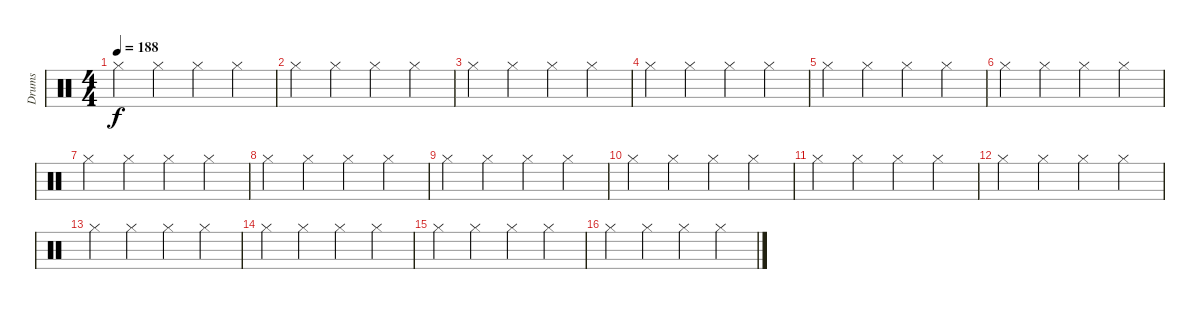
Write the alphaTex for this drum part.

\track ("Drums" "Drums") {instrument percussion}
\staff {score}
\articulation defaults
\ts (4 4)
\tempo 188
\clef neutral
\ks c "Hi-Hat (closed)".4{dy f} "Hi-Hat (closed)".4 "Hi-Hat (closed)".4 "Hi-Hat (closed)".4
|
"Hi-Hat (closed)".4 "Hi-Hat (closed)".4 "Hi-Hat (closed)".4 "Hi-Hat (closed)".4 |
"Hi-Hat (closed)".4 "Hi-Hat (closed)".4 "Hi-Hat (closed)".4 "Hi-Hat (closed)".4 |
"Hi-Hat (closed)".4 "Hi-Hat (closed)".4 "Hi-Hat (closed)".4 "Hi-Hat (closed)".4 |
"Hi-Hat (closed)".4 "Hi-Hat (closed)".4 "Hi-Hat (closed)".4 "Hi-Hat (closed)".4 |
"Hi-Hat (closed)".4 "Hi-Hat (closed)".4 "Hi-Hat (closed)".4 "Hi-Hat (closed)".4 |
"Hi-Hat (closed)".4 "Hi-Hat (closed)".4 "Hi-Hat (closed)".4 "Hi-Hat (closed)".4 |
"Hi-Hat (closed)".4 "Hi-Hat (closed)".4 "Hi-Hat (closed)".4 "Hi-Hat (closed)".4 |
"Hi-Hat (closed)".4 "Hi-Hat (closed)".4 "Hi-Hat (closed)".4 "Hi-Hat (closed)".4 |
"Hi-Hat (closed)".4 "Hi-Hat (closed)".4 "Hi-Hat (closed)".4 "Hi-Hat (closed)".4 |
"Hi-Hat (closed)".4 "Hi-Hat (closed)".4 "Hi-Hat (closed)".4 "Hi-Hat (closed)".4 |
"Hi-Hat (closed)".4 "Hi-Hat (closed)".4 "Hi-Hat (closed)".4 "Hi-Hat (closed)".4 |
"Hi-Hat (closed)".4 "Hi-Hat (closed)".4 "Hi-Hat (closed)".4 "Hi-Hat (closed)".4 |
"Hi-Hat (closed)".4 "Hi-Hat (closed)".4 "Hi-Hat (closed)".4 "Hi-Hat (closed)".4 |
"Hi-Hat (closed)".4 "Hi-Hat (closed)".4 "Hi-Hat (closed)".4 "Hi-Hat (closed)".4 |
"Hi-Hat (closed)".4 "Hi-Hat (closed)".4 "Hi-Hat (closed)".4 "Hi-Hat (closed)".4
